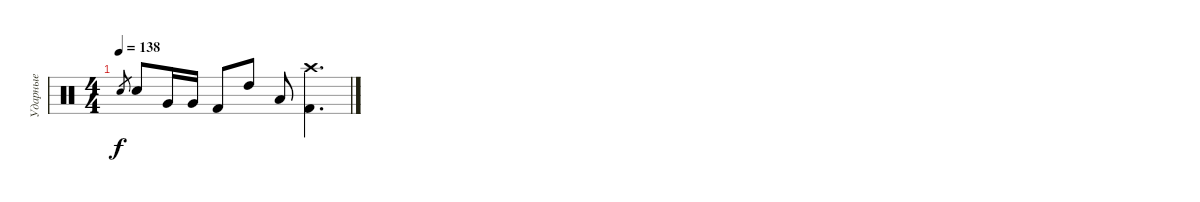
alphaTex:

\track ("Ударные" "Ударные") {instrument percussion}
\staff {score}
\articulation defaults
\ts (4 4)
\tempo 138
\clef neutral
\ks c "Electric Snare (hit)".8{gr dy f} "Electric Snare (hit)".8 "Very Low Tom (hit)".16 "Very Low Tom (hit)".16 "Kick (hit) 2".8 "High Tom (hit)".8 "Low Tom (hit)".8
("Crash high (hit)" "Kick (hit) 2").4{d}
